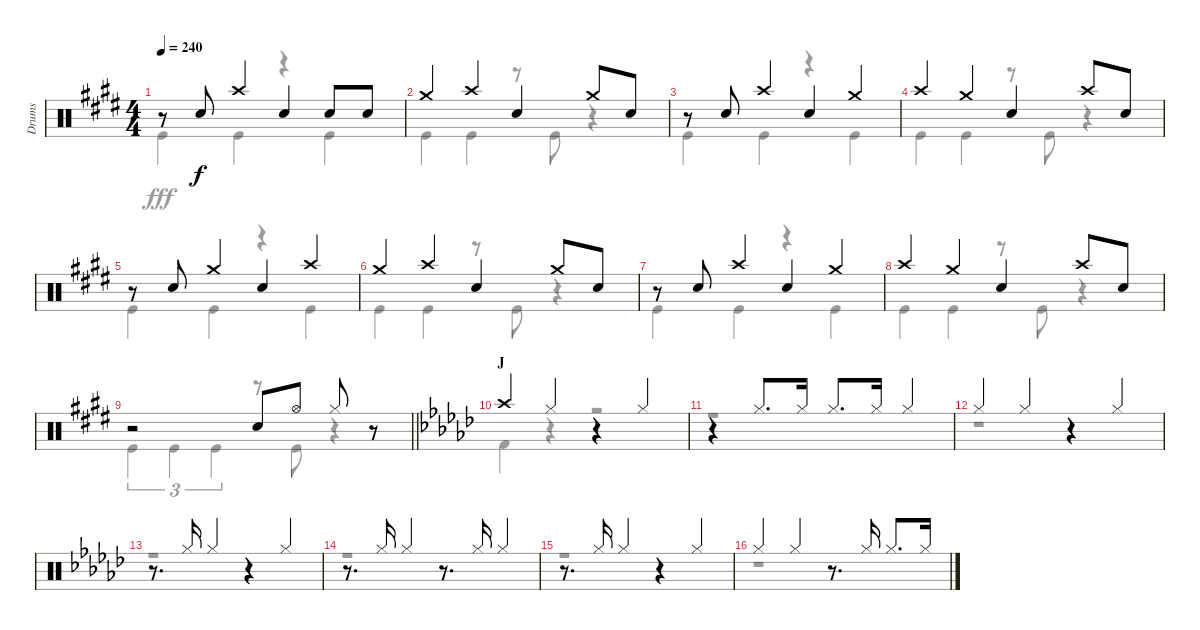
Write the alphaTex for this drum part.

\track ("Drums" "Drums") {instrument percussion}
\staff {score}
\articulation defaults
\voice
\ts (4 4)
\tempo 240
\clef neutral
\ks e
r.8{dy f} "Snare (hit) 2".8 "Crash high (hit)".4 "Snare (hit) 2".4 "Snare (hit) 2".8 "Snare (hit) 2".8 |
"Crash medium (hit)".4 "Crash high (hit)".4 "Snare (hit) 2".4 "Crash medium (hit)".8 "Snare (hit) 2".8 |
r.8 "Snare (hit) 2".8 "Crash high (hit)".4 "Snare (hit) 2".4 "Crash medium (hit)".4 |
"Crash high (hit)".4 "Crash medium (hit)".4 "Snare (hit) 2".4 "Crash high (hit)".8 "Snare (hit) 2".8 |
r.8 "Snare (hit) 2".8 "Crash medium (hit)".4 "Snare (hit) 2".4 "Crash high (hit)".4 |
"Crash medium (hit)".4 "Crash high (hit)".4 "Snare (hit) 2".4 "Crash medium (hit)".8 "Snare (hit) 2".8 |
r.8 "Snare (hit) 2".8 "Crash high (hit)".4 "Snare (hit) 2".4 "Crash medium (hit)".4 |
"Crash high (hit)".4 "Crash medium (hit)".4 "Snare (hit) 2".4 "Crash high (hit)".8 "Snare (hit) 2".8 |
\barLineRight lightlight
r.2 "Snare (hit) 2".8 "Hi-Hat (open)".8 "Hi-Hat (closed)".8 r.8 |
\section ("" "J")
\ks gb "Crash high (hit)".4 "Hi-Hat (closed)".4
r.4 "Hi-Hat (closed)".4 |
r.4 "Hi-Hat (closed)".8{d} "Hi-Hat (closed)".16 "Hi-Hat (closed)".8{d} "Hi-Hat (closed)".16 "Hi-Hat (closed)".4 |
"Hi-Hat (closed)".4 "Hi-Hat (closed)".4 r.4 "Hi-Hat (closed)".4 |
r.8{d} "Hi-Hat (closed)".16 "Hi-Hat (closed)".4 r.4 "Hi-Hat (closed)".4 |
r.8{d} "Hi-Hat (closed)".16 "Hi-Hat (closed)".4 r.8{d} "Hi-Hat (closed)".16 "Hi-Hat (closed)".4 |
r.8{d} "Hi-Hat (closed)".16 "Hi-Hat (closed)".4 r.4 "Hi-Hat (closed)".4 |
"Hi-Hat (closed)".4 "Hi-Hat (closed)".4 r.8{d} "Hi-Hat (closed)".16 "Hi-Hat (closed)".8{d} "Hi-Hat (closed)".16
\voice
\clef neutral
\ottava regular
\simile none
\ks e "Kick (hit)".4{dy fff} "Kick (hit)".4
r.4 "Kick (hit)".4 |
"Kick (hit)".4 "Kick (hit)".4 r.8 "Kick (hit)".8 r.4 |
"Kick (hit)".4 "Kick (hit)".4 r.4 "Kick (hit)".4 |
"Kick (hit)".4 "Kick (hit)".4 r.8 "Kick (hit)".8 r.4 |
"Kick (hit)".4 "Kick (hit)".4 r.4 "Kick (hit)".4 |
"Kick (hit)".4 "Kick (hit)".4 r.8 "Kick (hit)".8 r.4 |
"Kick (hit)".4 "Kick (hit)".4 r.4 "Kick (hit)".4 |
"Kick (hit)".4 "Kick (hit)".4 r.8 "Kick (hit)".8 r.4 |
\barLineRight lightlight "Kick (hit)".4{tu (3 2)} "Kick (hit)".4{tu (3 2)} "Kick (hit)".4{tu (3 2)}
r.8 "Kick (hit)".8 r.4 |
\ks gb "Kick (hit) 2".4
r.4 r.2 |
r.1 |
r.1 |
r.1 |
r.1 |
r.1 |
r.1
